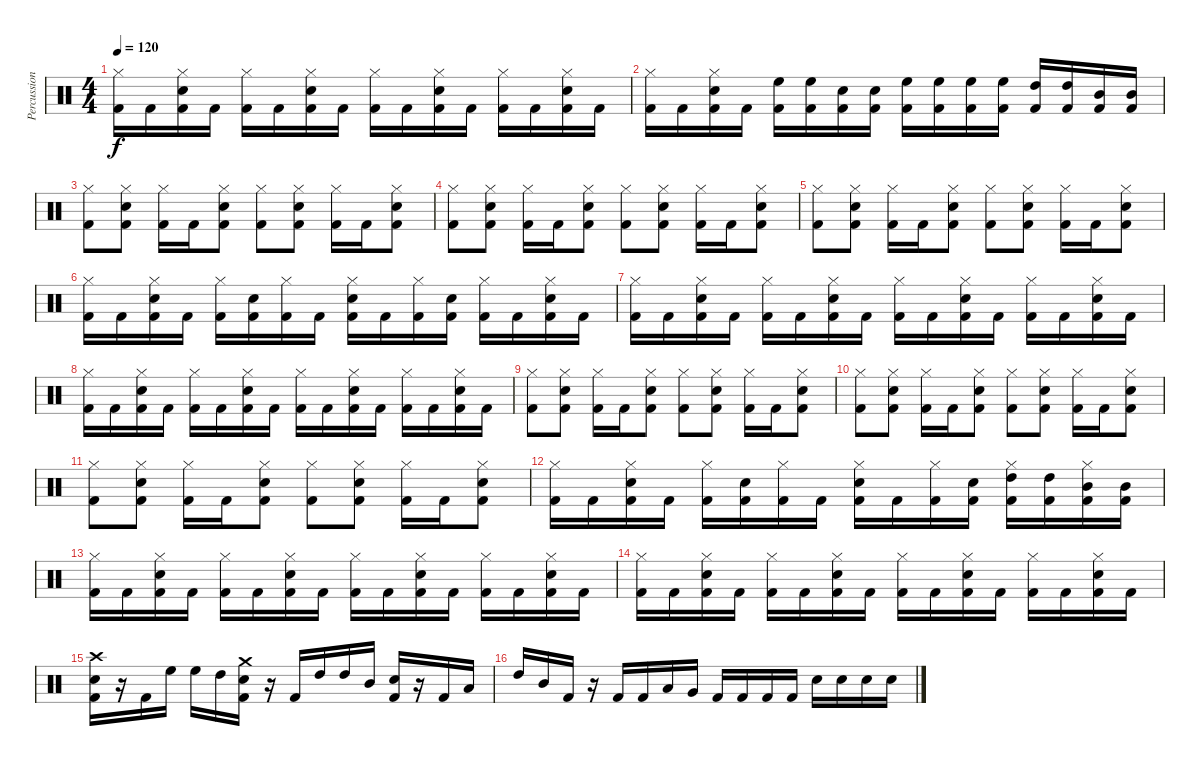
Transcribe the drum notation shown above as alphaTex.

\track ("Percussions" "Percussion") {instrument percussion}
\staff {score}
\articulation defaults
\ts (4 4)
\tempo 120
\clef neutral
\ks c
("Hi-Hat (closed)" "Kick (hit) 2").16{dy f} "Kick (hit) 2".16 ("Hi-Hat (closed)" "Snare (hit) 2" "Kick (hit) 2").16 "Kick (hit) 2".16 ("Hi-Hat (closed)" "Kick (hit) 2").16 "Kick (hit) 2".16 ("Hi-Hat (closed)" "Snare (hit) 2" "Kick (hit) 2").16 "Kick (hit) 2".16 ("Hi-Hat (closed)" "Kick (hit) 2").16 "Kick (hit) 2".16 ("Hi-Hat (closed)" "Snare (hit) 2" "Kick (hit) 2").16 "Kick (hit) 2".16 ("Hi-Hat (closed)" "Kick (hit) 2").16 "Kick (hit) 2".16 ("Hi-Hat (closed)" "Snare (hit) 2" "Kick (hit) 2").16 "Kick (hit) 2".16 |
("Hi-Hat (closed)" "Kick (hit) 2").16 "Kick (hit) 2".16 ("Hi-Hat (closed)" "Snare (hit) 2" "Kick (hit) 2").16 "Kick (hit) 2".16 ("High Floor Tom (hit)" "Kick (hit) 2").16 ("High Floor Tom (hit)" "Kick (hit) 2").16 ("Snare (hit) 2" "Kick (hit) 2").16 ("Snare (hit) 2" "Kick (hit) 2").16 ("High Floor Tom (hit)" "Kick (hit) 2").16 ("High Floor Tom (hit)" "Kick (hit) 2").16 ("High Floor Tom (hit)" "Kick (hit) 2").16 ("High Floor Tom (hit)" "Kick (hit) 2").16 ("High Tom (hit)" "Kick (hit) 2").16 ("High Tom (hit)" "Kick (hit) 2").16 ("Mid Tom (hit)" "Kick (hit) 2").16 ("Mid Tom (hit)" "Kick (hit) 2").16 |
("Hi-Hat (closed)" "Kick (hit) 2").8 ("Hi-Hat (closed)" "Snare (hit) 2" "Kick (hit) 2").8 ("Hi-Hat (closed)" "Kick (hit) 2").16 "Kick (hit) 2".16 ("Hi-Hat (closed)" "Snare (hit) 2" "Kick (hit) 2").8 ("Hi-Hat (closed)" "Kick (hit) 2").8 ("Hi-Hat (closed)" "Snare (hit) 2" "Kick (hit) 2").8 ("Hi-Hat (closed)" "Kick (hit) 2").16 "Kick (hit) 2".16 ("Hi-Hat (closed)" "Snare (hit) 2" "Kick (hit) 2").8 |
("Hi-Hat (closed)" "Kick (hit) 2").8 ("Hi-Hat (closed)" "Snare (hit) 2" "Kick (hit) 2").8 ("Hi-Hat (closed)" "Kick (hit) 2").16 "Kick (hit) 2".16 ("Hi-Hat (closed)" "Snare (hit) 2" "Kick (hit) 2").8 ("Hi-Hat (closed)" "Kick (hit) 2").8 ("Hi-Hat (closed)" "Snare (hit) 2" "Kick (hit) 2").8 ("Hi-Hat (closed)" "Kick (hit) 2").16 "Kick (hit) 2".16 ("Hi-Hat (closed)" "Snare (hit) 2" "Kick (hit) 2").8 |
("Hi-Hat (closed)" "Kick (hit) 2").8 ("Hi-Hat (closed)" "Snare (hit) 2" "Kick (hit) 2").8 ("Hi-Hat (closed)" "Kick (hit) 2").16 "Kick (hit) 2".16 ("Hi-Hat (closed)" "Snare (hit) 2" "Kick (hit) 2").8 ("Hi-Hat (closed)" "Kick (hit) 2").8 ("Hi-Hat (closed)" "Snare (hit) 2" "Kick (hit) 2").8 ("Hi-Hat (closed)" "Kick (hit) 2").16 "Kick (hit) 2".16 ("Hi-Hat (closed)" "Snare (hit) 2" "Kick (hit) 2").8 |
("Hi-Hat (closed)" "Kick (hit) 2").16 "Kick (hit) 2".16 ("Hi-Hat (closed)" "Snare (hit) 2" "Kick (hit) 2").16 "Kick (hit) 2".16 ("Hi-Hat (closed)" "Kick (hit) 2").16 ("Snare (hit) 2" "Kick (hit) 2").16 ("Hi-Hat (closed)" "Kick (hit) 2").16 "Kick (hit) 2".16 ("Hi-Hat (closed)" "Snare (hit) 2" "Kick (hit) 2").16 "Kick (hit) 2".16 ("Hi-Hat (closed)" "Kick (hit) 2").16 ("Snare (hit) 2" "Kick (hit) 2").16 ("Hi-Hat (closed)" "Kick (hit) 2").16 "Kick (hit) 2".16 ("Hi-Hat (closed)" "Snare (hit) 2" "Kick (hit) 2").16 "Kick (hit) 2".16 |
("Hi-Hat (closed)" "Kick (hit) 2").16 "Kick (hit) 2".16 ("Hi-Hat (closed)" "Snare (hit) 2" "Kick (hit) 2").16 "Kick (hit) 2".16 ("Hi-Hat (closed)" "Kick (hit) 2").16 "Kick (hit) 2".16 ("Hi-Hat (closed)" "Snare (hit) 2" "Kick (hit) 2").16 "Kick (hit) 2".16 ("Hi-Hat (closed)" "Kick (hit) 2").16 "Kick (hit) 2".16 ("Hi-Hat (closed)" "Snare (hit) 2" "Kick (hit) 2").16 "Kick (hit) 2".16 ("Hi-Hat (closed)" "Kick (hit) 2").16 "Kick (hit) 2".16 ("Hi-Hat (closed)" "Snare (hit) 2" "Kick (hit) 2").16 "Kick (hit) 2".16 |
("Hi-Hat (closed)" "Kick (hit) 2").16 "Kick (hit) 2".16 ("Hi-Hat (closed)" "Snare (hit) 2" "Kick (hit) 2").16 "Kick (hit) 2".16 ("Hi-Hat (closed)" "Kick (hit) 2").16 "Kick (hit) 2".16 ("Hi-Hat (closed)" "Snare (hit) 2" "Kick (hit) 2").16 "Kick (hit) 2".16 ("Hi-Hat (closed)" "Kick (hit) 2").16 "Kick (hit) 2".16 ("Hi-Hat (closed)" "Snare (hit) 2" "Kick (hit) 2").16 "Kick (hit) 2".16 ("Hi-Hat (closed)" "Kick (hit) 2").16 "Kick (hit) 2".16 ("Hi-Hat (closed)" "Snare (hit) 2" "Kick (hit) 2").16 "Kick (hit) 2".16 |
("Hi-Hat (closed)" "Kick (hit) 2").8 ("Hi-Hat (closed)" "Snare (hit) 2" "Kick (hit) 2").8 ("Hi-Hat (closed)" "Kick (hit) 2").16 "Kick (hit) 2".16 ("Hi-Hat (closed)" "Snare (hit) 2" "Kick (hit) 2").8 ("Hi-Hat (closed)" "Kick (hit) 2").8 ("Hi-Hat (closed)" "Snare (hit) 2" "Kick (hit) 2").8 ("Hi-Hat (closed)" "Kick (hit) 2").16 "Kick (hit) 2".16 ("Hi-Hat (closed)" "Snare (hit) 2" "Kick (hit) 2").8 |
("Hi-Hat (closed)" "Kick (hit) 2").8 ("Hi-Hat (closed)" "Snare (hit) 2" "Kick (hit) 2").8 ("Hi-Hat (closed)" "Kick (hit) 2").16 "Kick (hit) 2".16 ("Hi-Hat (closed)" "Snare (hit) 2" "Kick (hit) 2").8 ("Hi-Hat (closed)" "Kick (hit) 2").8 ("Hi-Hat (closed)" "Snare (hit) 2" "Kick (hit) 2").8 ("Hi-Hat (closed)" "Kick (hit) 2").16 "Kick (hit) 2".16 ("Hi-Hat (closed)" "Snare (hit) 2" "Kick (hit) 2").8 |
("Hi-Hat (closed)" "Kick (hit) 2").8 ("Hi-Hat (closed)" "Snare (hit) 2" "Kick (hit) 2").8 ("Hi-Hat (closed)" "Kick (hit) 2").16 "Kick (hit) 2".16 ("Hi-Hat (closed)" "Snare (hit) 2" "Kick (hit) 2").8 ("Hi-Hat (closed)" "Kick (hit) 2").8 ("Hi-Hat (closed)" "Snare (hit) 2" "Kick (hit) 2").8 ("Hi-Hat (closed)" "Kick (hit) 2").16 "Kick (hit) 2".16 ("Hi-Hat (closed)" "Snare (hit) 2" "Kick (hit) 2").8 |
("Hi-Hat (closed)" "Kick (hit) 2").16 "Kick (hit) 2".16 ("Hi-Hat (closed)" "Snare (hit) 2" "Kick (hit) 2").16 "Kick (hit) 2".16 ("Hi-Hat (closed)" "Kick (hit) 2").16 ("Snare (hit) 2" "Kick (hit) 2").16 ("Hi-Hat (closed)" "Kick (hit) 2").16 "Kick (hit) 2".16 ("Hi-Hat (closed)" "Snare (hit) 2" "Kick (hit) 2").16 "Kick (hit) 2".16 ("Hi-Hat (closed)" "Kick (hit) 2").16 ("Snare (hit) 2" "Kick (hit) 2").16 ("Hi-Hat (closed)" "High Tom (hit)" "Kick (hit) 2").16 ("High Tom (hit)" "Kick (hit) 2").16 ("Hi-Hat (closed)" "Mid Tom (hit)" "Kick (hit) 2").16 ("Mid Tom (hit)" "Kick (hit) 2").16 |
("Hi-Hat (closed)" "Kick (hit) 2").16 "Kick (hit) 2".16 ("Hi-Hat (closed)" "Snare (hit) 2" "Kick (hit) 2").16 "Kick (hit) 2".16 ("Hi-Hat (closed)" "Kick (hit) 2").16 "Kick (hit) 2".16 ("Hi-Hat (closed)" "Snare (hit) 2" "Kick (hit) 2").16 "Kick (hit) 2".16 ("Hi-Hat (closed)" "Kick (hit) 2").16 "Kick (hit) 2".16 ("Hi-Hat (closed)" "Snare (hit) 2" "Kick (hit) 2").16 "Kick (hit) 2".16 ("Hi-Hat (closed)" "Kick (hit) 2").16 "Kick (hit) 2".16 ("Hi-Hat (closed)" "Snare (hit) 2" "Kick (hit) 2").16 "Kick (hit) 2".16 |
("Hi-Hat (closed)" "Kick (hit) 2").16 "Kick (hit) 2".16 ("Hi-Hat (closed)" "Snare (hit) 2" "Kick (hit) 2").16 "Kick (hit) 2".16 ("Hi-Hat (closed)" "Kick (hit) 2").16 "Kick (hit) 2".16 ("Hi-Hat (closed)" "Snare (hit) 2" "Kick (hit) 2").16 "Kick (hit) 2".16 ("Hi-Hat (closed)" "Kick (hit) 2").16 "Kick (hit) 2".16 ("Hi-Hat (closed)" "Snare (hit) 2" "Kick (hit) 2").16 "Kick (hit) 2".16 ("Hi-Hat (closed)" "Kick (hit) 2").16 "Kick (hit) 2".16 ("Hi-Hat (closed)" "Snare (hit) 2" "Kick (hit) 2").16 "Kick (hit) 2".16 |
("Crash high (hit)" "Snare (hit) 2" "Kick (hit) 2").16 r.16 "Kick (hit) 2".16 "High Floor Tom (hit)".16 "High Floor Tom (hit)".16 "High Tom (hit)".16 ("Crash medium (hit)" "Snare (hit) 2" "Kick (hit) 2").16 r.16 "Kick (hit) 2".16 "High Tom (hit)".16 "High Tom (hit)".16 "Mid Tom (hit)".16 ("Snare (hit) 2" "Kick (hit) 2").16 r.16 "Kick (hit) 2".16 "Low Tom (hit)".16 |
"High Tom (hit)".16 "Mid Tom (hit)".16 "Kick (hit) 2".16 r.16 "Kick (hit) 2".16 "Kick (hit) 2".16 "Low Tom (hit)".16 "Very Low Tom (hit)".16 "Kick (hit) 2".16 "Kick (hit) 2".16 "Kick (hit) 2".16 "Kick (hit) 2".16 "Snare (hit) 2".16 "Snare (hit) 2".16 "Snare (hit) 2".16 "Snare (hit) 2".16
